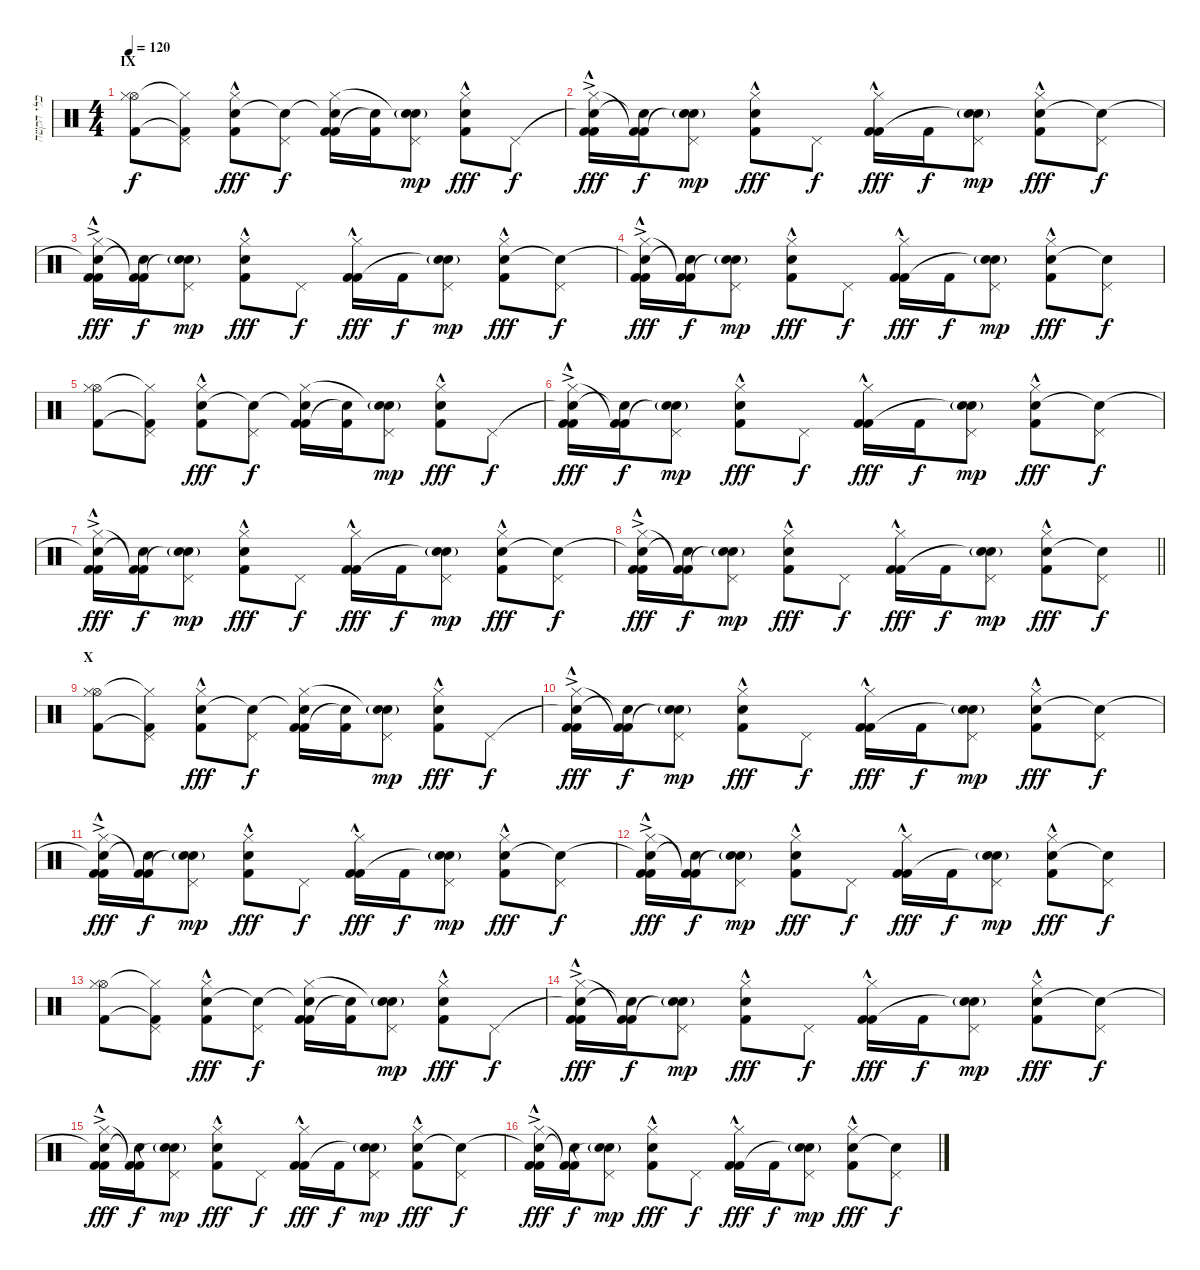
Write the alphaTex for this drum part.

\track ("כלי הקשה" "כלי הקשה") {instrument percussion}
\staff {score}
\articulation defaults
\ts (4 4)
\section ("" "IX")
\tempo 120
\clef neutral
\ks c
("Hi-Hat (open)" "Hi-Hat (closed)" "Kick (hit) 2").8{dy f} ("Pedal Hi-Hat (hit)" "Hi-Hat (closed)"{t} "Kick (hit) 2"{t}).8 ("Hand Clap (hit)"{hac} "Hi-Hat (closed)" "Kick (hit) 2").8{dy fff} ("Snare (hit)"{t} "Pedal Hi-Hat (hit)").8{dy f} ("Snare (hit)"{t} "Kick (hit) 2" "Hi-Hat (closed)" "Kick (hit) 2").16 ("Kick (hit) 2" "Snare (hit)"{t}).16 ("Hand Clap (hit)"{g} "Pedal Hi-Hat (hit)" "Snare (hit)"{t}).8{dy mp} ("Hand Clap (hit)"{hac} "Hi-Hat (closed)" "Kick (hit) 2").8{dy fff} "Pedal Hi-Hat (hit)".8{dy f} |
("Snare (hit)"{t} "Kick (hit) 2"{ac} "Hi-Hat (closed)"{hac} "Kick (hit) 2"{hac}).16{dy fff} ("Snare (hit)"{t} "Kick (hit) 2" "Kick (hit) 2"{t}).16{dy f} ("Hand Clap (hit)"{g} "Pedal Hi-Hat (hit)" "Snare (hit)"{t}).8{dy mp} ("Hand Clap (hit)"{hac} "Hi-Hat (closed)"{hac} "Kick (hit) 2"{hac}).8{dy fff} "Pedal Hi-Hat (hit)".8{dy f} ("Kick (hit) 2" "Hi-Hat (closed)"{hac} "Kick (hit) 2"{hac}).16{dy fff} "Kick (hit) 2".16{dy f} ("Hand Clap (hit)"{g} "Pedal Hi-Hat (hit)" "Snare (hit)"{t}).8{dy mp} ("Hand Clap (hit)"{hac} "Hi-Hat (closed)"{hac} "Kick (hit) 2"{hac}).8{dy fff} ("Snare (hit)"{t} "Pedal Hi-Hat (hit)").8{dy f} |
("Snare (hit)"{t} "Kick (hit) 2"{ac} "Hi-Hat (closed)"{hac} "Kick (hit) 2"{hac}).16{dy fff} ("Snare (hit)"{t} "Kick (hit) 2" "Kick (hit) 2"{t}).16{dy f} ("Hand Clap (hit)"{g} "Pedal Hi-Hat (hit)" "Snare (hit)"{t}).8{dy mp} ("Hand Clap (hit)"{hac} "Hi-Hat (closed)"{hac} "Kick (hit) 2"{hac}).8{dy fff} "Pedal Hi-Hat (hit)".8{dy f} ("Kick (hit) 2" "Hi-Hat (closed)"{hac} "Kick (hit) 2"{hac}).16{dy fff} "Kick (hit) 2".16{dy f} ("Hand Clap (hit)"{g} "Pedal Hi-Hat (hit)" "Snare (hit)"{t}).8{dy mp} ("Hand Clap (hit)"{hac} "Hi-Hat (closed)"{hac} "Kick (hit) 2"{hac}).8{dy fff} ("Snare (hit)"{t} "Pedal Hi-Hat (hit)").8{dy f} |
("Snare (hit)"{t} "Kick (hit) 2"{ac} "Hi-Hat (closed)"{hac} "Kick (hit) 2"{hac}).16{dy fff} ("Snare (hit)"{t} "Kick (hit) 2" "Kick (hit) 2"{t}).16{dy f} ("Hand Clap (hit)"{g} "Pedal Hi-Hat (hit)" "Snare (hit)"{t}).8{dy mp} ("Hand Clap (hit)"{hac} "Hi-Hat (closed)"{hac} "Kick (hit) 2"{hac}).8{dy fff} "Pedal Hi-Hat (hit)".8{dy f} ("Kick (hit) 2" "Hi-Hat (closed)"{hac} "Kick (hit) 2"{hac}).16{dy fff} "Kick (hit) 2".16{dy f} ("Hand Clap (hit)"{g} "Pedal Hi-Hat (hit)" "Snare (hit)"{t}).8{dy mp} ("Hand Clap (hit)"{hac} "Hi-Hat (closed)"{hac} "Kick (hit) 2"{hac}).8{dy fff} ("Snare (hit)"{t} "Pedal Hi-Hat (hit)").8{dy f} |
("Hi-Hat (open)" "Hi-Hat (closed)" "Kick (hit) 2").8 ("Pedal Hi-Hat (hit)" "Hi-Hat (closed)"{t} "Kick (hit) 2"{t}).8 ("Hand Clap (hit)"{hac} "Hi-Hat (closed)" "Kick (hit) 2").8{dy fff} ("Snare (hit)"{t} "Pedal Hi-Hat (hit)").8{dy f} ("Snare (hit)"{t} "Kick (hit) 2" "Hi-Hat (closed)" "Kick (hit) 2").16 ("Kick (hit) 2" "Snare (hit)"{t}).16 ("Hand Clap (hit)"{g} "Pedal Hi-Hat (hit)" "Snare (hit)"{t}).8{dy mp} ("Hand Clap (hit)"{hac} "Hi-Hat (closed)" "Kick (hit) 2").8{dy fff} "Pedal Hi-Hat (hit)".8{dy f} |
("Snare (hit)"{t} "Kick (hit) 2"{ac} "Hi-Hat (closed)"{hac} "Kick (hit) 2"{hac}).16{dy fff} ("Snare (hit)"{t} "Kick (hit) 2" "Kick (hit) 2"{t}).16{dy f} ("Hand Clap (hit)"{g} "Pedal Hi-Hat (hit)" "Snare (hit)"{t}).8{dy mp} ("Hand Clap (hit)"{hac} "Hi-Hat (closed)"{hac} "Kick (hit) 2"{hac}).8{dy fff} "Pedal Hi-Hat (hit)".8{dy f} ("Kick (hit) 2" "Hi-Hat (closed)"{hac} "Kick (hit) 2"{hac}).16{dy fff} "Kick (hit) 2".16{dy f} ("Hand Clap (hit)"{g} "Pedal Hi-Hat (hit)" "Snare (hit)"{t}).8{dy mp} ("Hand Clap (hit)"{hac} "Hi-Hat (closed)"{hac} "Kick (hit) 2"{hac}).8{dy fff} ("Snare (hit)"{t} "Pedal Hi-Hat (hit)").8{dy f} |
("Snare (hit)"{t} "Kick (hit) 2"{ac} "Hi-Hat (closed)"{hac} "Kick (hit) 2"{hac}).16{dy fff} ("Snare (hit)"{t} "Kick (hit) 2" "Kick (hit) 2"{t}).16{dy f} ("Hand Clap (hit)"{g} "Pedal Hi-Hat (hit)" "Snare (hit)"{t}).8{dy mp} ("Hand Clap (hit)"{hac} "Hi-Hat (closed)"{hac} "Kick (hit) 2"{hac}).8{dy fff} "Pedal Hi-Hat (hit)".8{dy f} ("Kick (hit) 2" "Hi-Hat (closed)"{hac} "Kick (hit) 2"{hac}).16{dy fff} "Kick (hit) 2".16{dy f} ("Hand Clap (hit)"{g} "Pedal Hi-Hat (hit)" "Snare (hit)"{t}).8{dy mp} ("Hand Clap (hit)"{hac} "Hi-Hat (closed)"{hac} "Kick (hit) 2"{hac}).8{dy fff} ("Snare (hit)"{t} "Pedal Hi-Hat (hit)").8{dy f} |
\barLineRight lightlight
("Snare (hit)"{t} "Kick (hit) 2"{ac} "Hi-Hat (closed)"{hac} "Kick (hit) 2"{hac}).16{dy fff} ("Snare (hit)"{t} "Kick (hit) 2" "Kick (hit) 2"{t}).16{dy f} ("Hand Clap (hit)"{g} "Pedal Hi-Hat (hit)" "Snare (hit)"{t}).8{dy mp} ("Hand Clap (hit)"{hac} "Hi-Hat (closed)"{hac} "Kick (hit) 2"{hac}).8{dy fff} "Pedal Hi-Hat (hit)".8{dy f} ("Kick (hit) 2" "Hi-Hat (closed)"{hac} "Kick (hit) 2"{hac}).16{dy fff} "Kick (hit) 2".16{dy f} ("Hand Clap (hit)"{g} "Pedal Hi-Hat (hit)" "Snare (hit)"{t}).8{dy mp} ("Hand Clap (hit)"{hac} "Hi-Hat (closed)"{hac} "Kick (hit) 2"{hac}).8{dy fff} ("Snare (hit)"{t} "Pedal Hi-Hat (hit)").8{dy f} |
\section ("" "X")
("Hi-Hat (open)" "Hi-Hat (closed)" "Kick (hit) 2").8 ("Pedal Hi-Hat (hit)" "Hi-Hat (closed)"{t} "Kick (hit) 2"{t}).8 ("Hand Clap (hit)"{hac} "Hi-Hat (closed)" "Kick (hit) 2").8{dy fff} ("Snare (hit)"{t} "Pedal Hi-Hat (hit)").8{dy f} ("Snare (hit)"{t} "Kick (hit) 2" "Hi-Hat (closed)" "Kick (hit) 2").16 ("Kick (hit) 2" "Snare (hit)"{t}).16 ("Hand Clap (hit)"{g} "Pedal Hi-Hat (hit)" "Snare (hit)"{t}).8{dy mp} ("Hand Clap (hit)"{hac} "Hi-Hat (closed)" "Kick (hit) 2").8{dy fff} "Pedal Hi-Hat (hit)".8{dy f} |
("Snare (hit)"{t} "Kick (hit) 2"{ac} "Hi-Hat (closed)"{hac} "Kick (hit) 2"{hac}).16{dy fff} ("Snare (hit)"{t} "Kick (hit) 2" "Kick (hit) 2"{t}).16{dy f} ("Hand Clap (hit)"{g} "Pedal Hi-Hat (hit)" "Snare (hit)"{t}).8{dy mp} ("Hand Clap (hit)"{hac} "Hi-Hat (closed)"{hac} "Kick (hit) 2"{hac}).8{dy fff} "Pedal Hi-Hat (hit)".8{dy f} ("Kick (hit) 2" "Hi-Hat (closed)"{hac} "Kick (hit) 2"{hac}).16{dy fff} "Kick (hit) 2".16{dy f} ("Hand Clap (hit)"{g} "Pedal Hi-Hat (hit)" "Snare (hit)"{t}).8{dy mp} ("Hand Clap (hit)"{hac} "Hi-Hat (closed)"{hac} "Kick (hit) 2"{hac}).8{dy fff} ("Snare (hit)"{t} "Pedal Hi-Hat (hit)").8{dy f} |
("Snare (hit)"{t} "Kick (hit) 2"{ac} "Hi-Hat (closed)"{hac} "Kick (hit) 2"{hac}).16{dy fff} ("Snare (hit)"{t} "Kick (hit) 2" "Kick (hit) 2"{t}).16{dy f} ("Hand Clap (hit)"{g} "Pedal Hi-Hat (hit)" "Snare (hit)"{t}).8{dy mp} ("Hand Clap (hit)"{hac} "Hi-Hat (closed)"{hac} "Kick (hit) 2"{hac}).8{dy fff} "Pedal Hi-Hat (hit)".8{dy f} ("Kick (hit) 2" "Hi-Hat (closed)"{hac} "Kick (hit) 2"{hac}).16{dy fff} "Kick (hit) 2".16{dy f} ("Hand Clap (hit)"{g} "Pedal Hi-Hat (hit)" "Snare (hit)"{t}).8{dy mp} ("Hand Clap (hit)"{hac} "Hi-Hat (closed)"{hac} "Kick (hit) 2"{hac}).8{dy fff} ("Snare (hit)"{t} "Pedal Hi-Hat (hit)").8{dy f} |
("Snare (hit)"{t} "Kick (hit) 2"{ac} "Hi-Hat (closed)"{hac} "Kick (hit) 2"{hac}).16{dy fff} ("Snare (hit)"{t} "Kick (hit) 2" "Kick (hit) 2"{t}).16{dy f} ("Hand Clap (hit)"{g} "Pedal Hi-Hat (hit)" "Snare (hit)"{t}).8{dy mp} ("Hand Clap (hit)"{hac} "Hi-Hat (closed)"{hac} "Kick (hit) 2"{hac}).8{dy fff} "Pedal Hi-Hat (hit)".8{dy f} ("Kick (hit) 2" "Hi-Hat (closed)"{hac} "Kick (hit) 2"{hac}).16{dy fff} "Kick (hit) 2".16{dy f} ("Hand Clap (hit)"{g} "Pedal Hi-Hat (hit)" "Snare (hit)"{t}).8{dy mp} ("Hand Clap (hit)"{hac} "Hi-Hat (closed)"{hac} "Kick (hit) 2"{hac}).8{dy fff} ("Snare (hit)"{t} "Pedal Hi-Hat (hit)").8{dy f} |
("Hi-Hat (open)" "Hi-Hat (closed)" "Kick (hit) 2").8 ("Pedal Hi-Hat (hit)" "Hi-Hat (closed)"{t} "Kick (hit) 2"{t}).8 ("Hand Clap (hit)"{hac} "Hi-Hat (closed)" "Kick (hit) 2").8{dy fff} ("Snare (hit)"{t} "Pedal Hi-Hat (hit)").8{dy f} ("Snare (hit)"{t} "Kick (hit) 2" "Hi-Hat (closed)" "Kick (hit) 2").16 ("Kick (hit) 2" "Snare (hit)"{t}).16 ("Hand Clap (hit)"{g} "Pedal Hi-Hat (hit)" "Snare (hit)"{t}).8{dy mp} ("Hand Clap (hit)"{hac} "Hi-Hat (closed)" "Kick (hit) 2").8{dy fff} "Pedal Hi-Hat (hit)".8{dy f} |
("Snare (hit)"{t} "Kick (hit) 2"{ac} "Hi-Hat (closed)"{hac} "Kick (hit) 2"{hac}).16{dy fff} ("Snare (hit)"{t} "Kick (hit) 2" "Kick (hit) 2"{t}).16{dy f} ("Hand Clap (hit)"{g} "Pedal Hi-Hat (hit)" "Snare (hit)"{t}).8{dy mp} ("Hand Clap (hit)"{hac} "Hi-Hat (closed)"{hac} "Kick (hit) 2"{hac}).8{dy fff} "Pedal Hi-Hat (hit)".8{dy f} ("Kick (hit) 2" "Hi-Hat (closed)"{hac} "Kick (hit) 2"{hac}).16{dy fff} "Kick (hit) 2".16{dy f} ("Hand Clap (hit)"{g} "Pedal Hi-Hat (hit)" "Snare (hit)"{t}).8{dy mp} ("Hand Clap (hit)"{hac} "Hi-Hat (closed)"{hac} "Kick (hit) 2"{hac}).8{dy fff} ("Snare (hit)"{t} "Pedal Hi-Hat (hit)").8{dy f} |
("Snare (hit)"{t} "Kick (hit) 2"{ac} "Hi-Hat (closed)"{hac} "Kick (hit) 2"{hac}).16{dy fff} ("Snare (hit)"{t} "Kick (hit) 2" "Kick (hit) 2"{t}).16{dy f} ("Hand Clap (hit)"{g} "Pedal Hi-Hat (hit)" "Snare (hit)"{t}).8{dy mp} ("Hand Clap (hit)"{hac} "Hi-Hat (closed)"{hac} "Kick (hit) 2"{hac}).8{dy fff} "Pedal Hi-Hat (hit)".8{dy f} ("Kick (hit) 2" "Hi-Hat (closed)"{hac} "Kick (hit) 2"{hac}).16{dy fff} "Kick (hit) 2".16{dy f} ("Hand Clap (hit)"{g} "Pedal Hi-Hat (hit)" "Snare (hit)"{t}).8{dy mp} ("Hand Clap (hit)"{hac} "Hi-Hat (closed)"{hac} "Kick (hit) 2"{hac}).8{dy fff} ("Snare (hit)"{t} "Pedal Hi-Hat (hit)").8{dy f} |
("Snare (hit)"{t} "Kick (hit) 2"{ac} "Hi-Hat (closed)"{hac} "Kick (hit) 2"{hac}).16{dy fff} ("Snare (hit)"{t} "Kick (hit) 2" "Kick (hit) 2"{t}).16{dy f} ("Hand Clap (hit)"{g} "Pedal Hi-Hat (hit)" "Snare (hit)"{t}).8{dy mp} ("Hand Clap (hit)"{hac} "Hi-Hat (closed)"{hac} "Kick (hit) 2"{hac}).8{dy fff} "Pedal Hi-Hat (hit)".8{dy f} ("Kick (hit) 2" "Hi-Hat (closed)"{hac} "Kick (hit) 2"{hac}).16{dy fff} "Kick (hit) 2".16{dy f} ("Hand Clap (hit)"{g} "Pedal Hi-Hat (hit)" "Snare (hit)"{t}).8{dy mp} ("Hand Clap (hit)"{hac} "Hi-Hat (closed)"{hac} "Kick (hit) 2"{hac}).8{dy fff} ("Snare (hit)"{t} "Pedal Hi-Hat (hit)").8{dy f}
